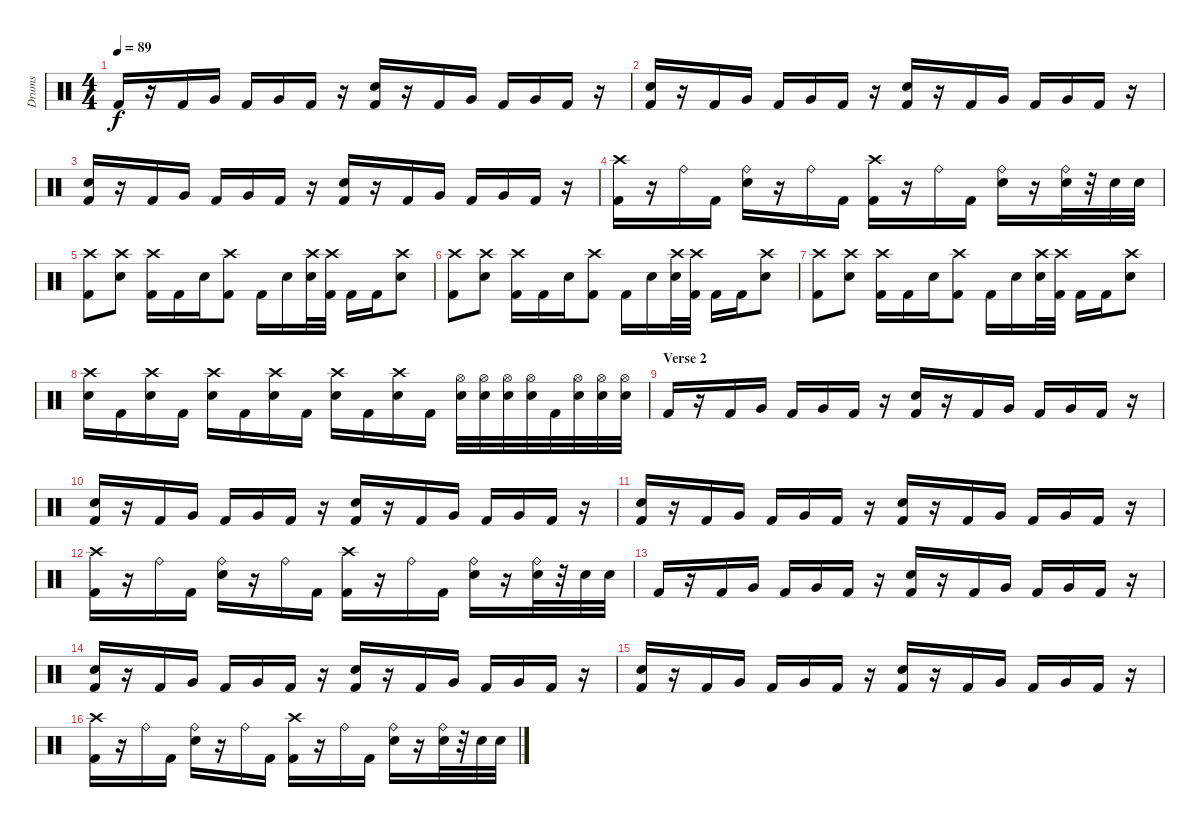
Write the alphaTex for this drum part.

\track ("Drums" "Drums") {instrument percussion}
\staff {score}
\articulation defaults
\ts (4 4)
\tempo 89
\clef neutral
\ks c "Kick (hit) 2".16{dy f}
r.16 "Kick (hit) 2".16 "Very Low Tom (hit)".16 "Kick (hit) 2".16 "Very Low Tom (hit)".16 "Kick (hit) 2".16 r.16 ("Electric Snare (hit)" "Kick (hit) 2").16 r.16 "Kick (hit) 2".16 "Very Low Tom (hit)".16 "Kick (hit) 2".16 "Very Low Tom (hit)".16 "Kick (hit) 2".16 r.16 |
("Electric Snare (hit)" "Kick (hit) 2").16 r.16 "Kick (hit) 2".16 "Very Low Tom (hit)".16 "Kick (hit) 2".16 "Very Low Tom (hit)".16 "Kick (hit) 2".16 r.16 ("Electric Snare (hit)" "Kick (hit) 2").16 r.16 "Kick (hit) 2".16 "Very Low Tom (hit)".16 "Kick (hit) 2".16 "Very Low Tom (hit)".16 "Kick (hit) 2".16 r.16 |
("Electric Snare (hit)" "Kick (hit) 2").16 r.16 "Kick (hit) 2".16 "Very Low Tom (hit)".16 "Kick (hit) 2".16 "Very Low Tom (hit)".16 "Kick (hit) 2".16 r.16 ("Electric Snare (hit)" "Kick (hit) 2").16 r.16 "Kick (hit) 2".16 "Very Low Tom (hit)".16 "Kick (hit) 2".16 "Very Low Tom (hit)".16 "Kick (hit) 2".16 r.16 |
("Crash high (hit)" "Kick (hit) 2").16 r.16 "Ride (bell)".16 "Kick (hit) 2".16 ("Ride (bell)" "Electric Snare (hit)").16 r.16 "Ride (bell)".16 "Kick (hit) 2".16 ("Crash high (hit)" "Kick (hit) 2").16 r.16 "Ride (bell)".16 "Kick (hit) 2".16 ("Ride (bell)" "Electric Snare (hit)").16 r.16 ("Ride (bell)" "Electric Snare (hit)").32 r.32 "Electric Snare (hit)".32 "Electric Snare (hit)".32 |
("Crash high (hit)" "Kick (hit) 2").8 ("Crash high (hit)" "Electric Snare (hit)").8 ("Crash high (hit)" "Kick (hit) 2").16 "Kick (hit) 2".16 "Electric Snare (hit)".16 ("Crash high (hit)" "Kick (hit) 2").8 "Kick (hit) 2".16 "Electric Snare (hit)".16 ("Crash high (hit)" "Electric Snare (hit)").32 ("Crash high (hit)" "Kick (hit) 2").32 "Kick (hit) 2".16 "Kick (hit) 2".16 ("Crash high (hit)" "Electric Snare (hit)").8 |
("Crash high (hit)" "Kick (hit) 2").8 ("Crash high (hit)" "Electric Snare (hit)").8 ("Crash high (hit)" "Kick (hit) 2").16 "Kick (hit) 2".16 "Electric Snare (hit)".16 ("Crash high (hit)" "Kick (hit) 2").8 "Kick (hit) 2".16 "Electric Snare (hit)".16 ("Crash high (hit)" "Electric Snare (hit)").32 ("Crash high (hit)" "Kick (hit) 2").32 "Kick (hit) 2".16 "Kick (hit) 2".16 ("Crash high (hit)" "Electric Snare (hit)").8 |
("Crash high (hit)" "Kick (hit) 2").8 ("Crash high (hit)" "Electric Snare (hit)").8 ("Crash high (hit)" "Kick (hit) 2").16 "Kick (hit) 2".16 "Electric Snare (hit)".16 ("Crash high (hit)" "Kick (hit) 2").8 "Kick (hit) 2".16 "Electric Snare (hit)".16 ("Crash high (hit)" "Electric Snare (hit)").32 ("Crash high (hit)" "Kick (hit) 2").32 "Kick (hit) 2".16 "Kick (hit) 2".16 ("Crash high (hit)" "Electric Snare (hit)").8 |
("Crash high (hit)" "Electric Snare (hit)").16 "Kick (hit) 2".16 ("Crash high (hit)" "Electric Snare (hit)").16 "Kick (hit) 2".16 ("Crash high (hit)" "Electric Snare (hit)").16 "Kick (hit) 2".16 ("Crash high (hit)" "Electric Snare (hit)").16 "Kick (hit) 2".16 ("Crash high (hit)" "Electric Snare (hit)").16 "Kick (hit) 2".16 ("Crash high (hit)" "Electric Snare (hit)").16 "Kick (hit) 2".16 ("Hi-Hat (open)" "Electric Snare (hit)").32 ("Hi-Hat (open)" "Electric Snare (hit)").32 ("Hi-Hat (open)" "Electric Snare (hit)").32 ("Hi-Hat (open)" "Electric Snare (hit)").32 "Kick (hit) 2".32 ("Hi-Hat (open)" "Electric Snare (hit)").32 ("Hi-Hat (open)" "Electric Snare (hit)").32 ("Hi-Hat (open)" "Electric Snare (hit)").32 |
\section ("" "Verse 2")
"Kick (hit) 2".16 r.16 "Kick (hit) 2".16 "Very Low Tom (hit)".16 "Kick (hit) 2".16 "Very Low Tom (hit)".16 "Kick (hit) 2".16 r.16 ("Electric Snare (hit)" "Kick (hit) 2").16 r.16 "Kick (hit) 2".16 "Very Low Tom (hit)".16 "Kick (hit) 2".16 "Very Low Tom (hit)".16 "Kick (hit) 2".16 r.16 |
("Electric Snare (hit)" "Kick (hit) 2").16 r.16 "Kick (hit) 2".16 "Very Low Tom (hit)".16 "Kick (hit) 2".16 "Very Low Tom (hit)".16 "Kick (hit) 2".16 r.16 ("Electric Snare (hit)" "Kick (hit) 2").16 r.16 "Kick (hit) 2".16 "Very Low Tom (hit)".16 "Kick (hit) 2".16 "Very Low Tom (hit)".16 "Kick (hit) 2".16 r.16 |
("Electric Snare (hit)" "Kick (hit) 2").16 r.16 "Kick (hit) 2".16 "Very Low Tom (hit)".16 "Kick (hit) 2".16 "Very Low Tom (hit)".16 "Kick (hit) 2".16 r.16 ("Electric Snare (hit)" "Kick (hit) 2").16 r.16 "Kick (hit) 2".16 "Very Low Tom (hit)".16 "Kick (hit) 2".16 "Very Low Tom (hit)".16 "Kick (hit) 2".16 r.16 |
("Crash high (hit)" "Kick (hit) 2").16 r.16 "Ride (bell)".16 "Kick (hit) 2".16 ("Ride (bell)" "Electric Snare (hit)").16 r.16 "Ride (bell)".16 "Kick (hit) 2".16 ("Crash high (hit)" "Kick (hit) 2").16 r.16 "Ride (bell)".16 "Kick (hit) 2".16 ("Ride (bell)" "Electric Snare (hit)").16 r.16 ("Ride (bell)" "Electric Snare (hit)").32 r.32 "Electric Snare (hit)".32 "Electric Snare (hit)".32 |
"Kick (hit) 2".16 r.16 "Kick (hit) 2".16 "Very Low Tom (hit)".16 "Kick (hit) 2".16 "Very Low Tom (hit)".16 "Kick (hit) 2".16 r.16 ("Electric Snare (hit)" "Kick (hit) 2").16 r.16 "Kick (hit) 2".16 "Very Low Tom (hit)".16 "Kick (hit) 2".16 "Very Low Tom (hit)".16 "Kick (hit) 2".16 r.16 |
("Electric Snare (hit)" "Kick (hit) 2").16 r.16 "Kick (hit) 2".16 "Very Low Tom (hit)".16 "Kick (hit) 2".16 "Very Low Tom (hit)".16 "Kick (hit) 2".16 r.16 ("Electric Snare (hit)" "Kick (hit) 2").16 r.16 "Kick (hit) 2".16 "Very Low Tom (hit)".16 "Kick (hit) 2".16 "Very Low Tom (hit)".16 "Kick (hit) 2".16 r.16 |
("Electric Snare (hit)" "Kick (hit) 2").16 r.16 "Kick (hit) 2".16 "Very Low Tom (hit)".16 "Kick (hit) 2".16 "Very Low Tom (hit)".16 "Kick (hit) 2".16 r.16 ("Electric Snare (hit)" "Kick (hit) 2").16 r.16 "Kick (hit) 2".16 "Very Low Tom (hit)".16 "Kick (hit) 2".16 "Very Low Tom (hit)".16 "Kick (hit) 2".16 r.16 |
("Crash high (hit)" "Kick (hit) 2").16 r.16 "Ride (bell)".16 "Kick (hit) 2".16 ("Ride (bell)" "Electric Snare (hit)").16 r.16 "Ride (bell)".16 "Kick (hit) 2".16 ("Crash high (hit)" "Kick (hit) 2").16 r.16 "Ride (bell)".16 "Kick (hit) 2".16 ("Ride (bell)" "Electric Snare (hit)").16 r.16 ("Ride (bell)" "Electric Snare (hit)").32 r.32 "Electric Snare (hit)".32 "Electric Snare (hit)".32
